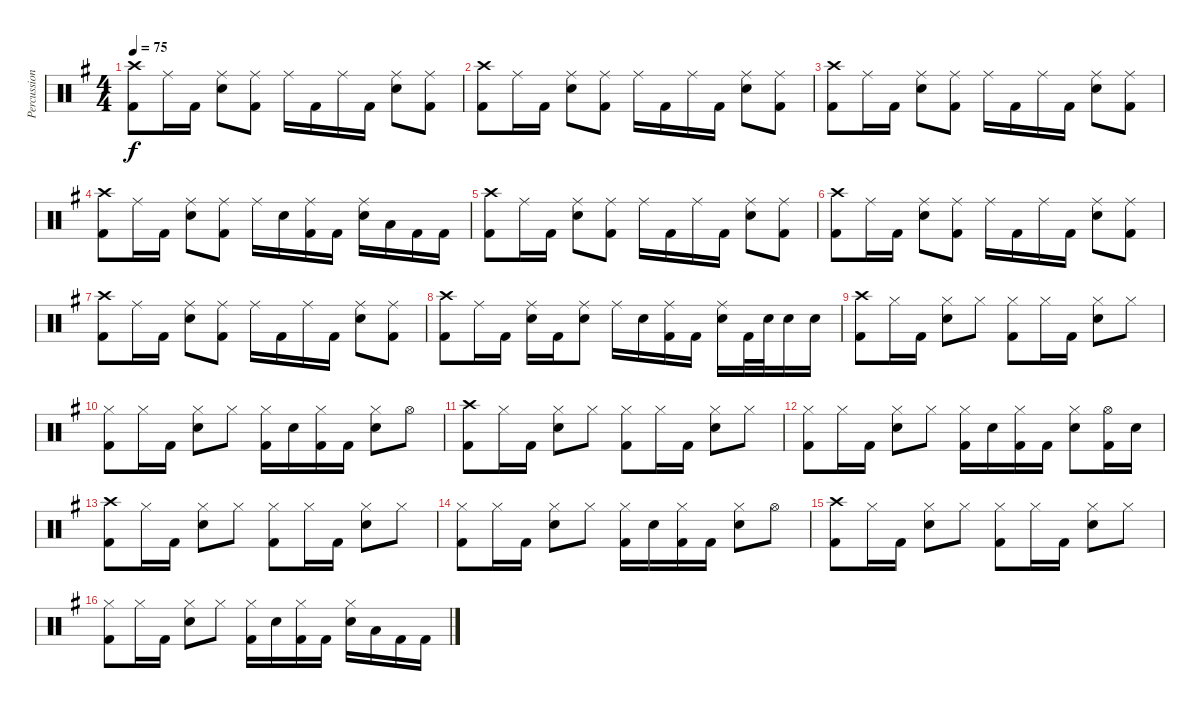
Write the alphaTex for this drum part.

\track ("Percussion" "Percussion") {instrument percussion}
\staff {score}
\articulation defaults
\ts (4 4)
\tempo 75
\clef neutral
\ks eminor
("Crash high (hit)" "Kick (hit) 2").8{dy f} "Ride (middle)".16 "Kick (hit) 2".16 ("Ride (middle)" "Electric Snare (hit)").8 ("Ride (middle)" "Kick (hit) 2").8 "Ride (middle)".16 "Kick (hit) 2".16 "Ride (middle)".16 "Kick (hit) 2".16 ("Ride (middle)" "Electric Snare (hit)").8 ("Ride (middle)" "Kick (hit) 2").8 |
("Crash high (hit)" "Kick (hit) 2").8 "Ride (middle)".16 "Kick (hit) 2".16 ("Ride (middle)" "Electric Snare (hit)").8 ("Ride (middle)" "Kick (hit) 2").8 "Ride (middle)".16 "Kick (hit) 2".16 "Ride (middle)".16 "Kick (hit) 2".16 ("Ride (middle)" "Electric Snare (hit)").8 ("Ride (middle)" "Kick (hit) 2").8 |
("Crash high (hit)" "Kick (hit) 2").8 "Ride (middle)".16 "Kick (hit) 2".16 ("Ride (middle)" "Electric Snare (hit)").8 ("Ride (middle)" "Kick (hit) 2").8 "Ride (middle)".16 "Kick (hit) 2".16 "Ride (middle)".16 "Kick (hit) 2".16 ("Ride (middle)" "Electric Snare (hit)").8 ("Ride (middle)" "Kick (hit) 2").8 |
("Crash high (hit)" "Kick (hit) 2").8 "Ride (middle)".16 "Kick (hit) 2".16 ("Ride (middle)" "Electric Snare (hit)").8 ("Ride (middle)" "Kick (hit) 2").8 "Ride (middle)".16 "Electric Snare (hit)".16 ("Ride (middle)" "Kick (hit) 2").16 "Kick (hit) 2".16 ("Ride (middle)" "Electric Snare (hit)").16 "Low Tom (hit)".16 "Kick (hit) 2".16 "Kick (hit) 2".16 |
("Crash high (hit)" "Kick (hit) 2").8 "Ride (middle)".16 "Kick (hit) 2".16 ("Ride (middle)" "Electric Snare (hit)").8 ("Ride (middle)" "Kick (hit) 2").8 "Ride (middle)".16 "Kick (hit) 2".16 "Ride (middle)".16 "Kick (hit) 2".16 ("Ride (middle)" "Electric Snare (hit)").8 ("Ride (middle)" "Kick (hit) 2").8 |
("Crash high (hit)" "Kick (hit) 2").8 "Ride (middle)".16 "Kick (hit) 2".16 ("Ride (middle)" "Electric Snare (hit)").8 ("Ride (middle)" "Kick (hit) 2").8 "Ride (middle)".16 "Kick (hit) 2".16 "Ride (middle)".16 "Kick (hit) 2".16 ("Ride (middle)" "Electric Snare (hit)").8 ("Ride (middle)" "Kick (hit) 2").8 |
("Crash high (hit)" "Kick (hit) 2").8 "Ride (middle)".16 "Kick (hit) 2".16 ("Ride (middle)" "Electric Snare (hit)").8 ("Ride (middle)" "Kick (hit) 2").8 "Ride (middle)".16 "Kick (hit) 2".16 "Ride (middle)".16 "Kick (hit) 2".16 ("Ride (middle)" "Electric Snare (hit)").8 ("Ride (middle)" "Kick (hit) 2").8 |
("Crash high (hit)" "Kick (hit) 2").8 "Ride (middle)".16 "Kick (hit) 2".16 ("Ride (middle)" "Electric Snare (hit)").16 "Kick (hit) 2".16 ("Ride (middle)" "Electric Snare (hit)").8 "Ride (middle)".16 "Electric Snare (hit)".16 ("Ride (middle)" "Kick (hit) 2").16 "Kick (hit) 2".16 ("Ride (middle)" "Electric Snare (hit)").16 "Kick (hit) 2".32 "Electric Snare (hit)".32 "Electric Snare (hit)".16 "Electric Snare (hit)".16 |
("Crash high (hit)" "Kick (hit) 2").8 "Hi-Hat (closed)".16 "Kick (hit) 2".16 ("Hi-Hat (closed)" "Electric Snare (hit)").8 "Hi-Hat (closed)".8 ("Hi-Hat (closed)" "Kick (hit) 2").8 "Hi-Hat (closed)".16 "Kick (hit) 2".16 ("Hi-Hat (closed)" "Electric Snare (hit)").8 "Hi-Hat (closed)".8 |
("Hi-Hat (closed)" "Kick (hit) 2").8 "Hi-Hat (closed)".16 "Kick (hit) 2".16 ("Hi-Hat (closed)" "Electric Snare (hit)").8 "Hi-Hat (closed)".8 ("Hi-Hat (closed)" "Kick (hit) 2").16 "Electric Snare (hit)".16 ("Hi-Hat (closed)" "Kick (hit) 2").16 "Kick (hit) 2".16 ("Hi-Hat (closed)" "Electric Snare (hit)").8 "Hi-Hat (open)".8 |
("Crash high (hit)" "Kick (hit) 2").8 "Hi-Hat (closed)".16 "Kick (hit) 2".16 ("Hi-Hat (closed)" "Electric Snare (hit)").8 "Hi-Hat (closed)".8 ("Hi-Hat (closed)" "Kick (hit) 2").8 "Hi-Hat (closed)".16 "Kick (hit) 2".16 ("Hi-Hat (closed)" "Electric Snare (hit)").8 "Hi-Hat (closed)".8 |
("Hi-Hat (closed)" "Kick (hit) 2").8 "Hi-Hat (closed)".16 "Kick (hit) 2".16 ("Hi-Hat (closed)" "Electric Snare (hit)").8 "Hi-Hat (closed)".8 ("Hi-Hat (closed)" "Kick (hit) 2").16 "Electric Snare (hit)".16 ("Hi-Hat (closed)" "Kick (hit) 2").16 "Kick (hit) 2".16 ("Hi-Hat (closed)" "Electric Snare (hit)").8 ("Hi-Hat (open)" "Kick (hit) 2").16 "Electric Snare (hit)".16 |
("Crash high (hit)" "Kick (hit) 2").8 "Hi-Hat (closed)".16 "Kick (hit) 2".16 ("Hi-Hat (closed)" "Electric Snare (hit)").8 "Hi-Hat (closed)".8 ("Hi-Hat (closed)" "Kick (hit) 2").8 "Hi-Hat (closed)".16 "Kick (hit) 2".16 ("Hi-Hat (closed)" "Electric Snare (hit)").8 "Hi-Hat (closed)".8 |
("Hi-Hat (closed)" "Kick (hit) 2").8 "Hi-Hat (closed)".16 "Kick (hit) 2".16 ("Hi-Hat (closed)" "Electric Snare (hit)").8 "Hi-Hat (closed)".8 ("Hi-Hat (closed)" "Kick (hit) 2").16 "Electric Snare (hit)".16 ("Hi-Hat (closed)" "Kick (hit) 2").16 "Kick (hit) 2".16 ("Hi-Hat (closed)" "Electric Snare (hit)").8 "Hi-Hat (open)".8 |
("Crash high (hit)" "Kick (hit) 2").8 "Hi-Hat (closed)".16 "Kick (hit) 2".16 ("Hi-Hat (closed)" "Electric Snare (hit)").8 "Hi-Hat (closed)".8 ("Hi-Hat (closed)" "Kick (hit) 2").8 "Hi-Hat (closed)".16 "Kick (hit) 2".16 ("Hi-Hat (closed)" "Electric Snare (hit)").8 "Hi-Hat (closed)".8 |
("Hi-Hat (closed)" "Kick (hit) 2").8 "Hi-Hat (closed)".16 "Kick (hit) 2".16 ("Hi-Hat (closed)" "Electric Snare (hit)").8 "Hi-Hat (closed)".8 ("Hi-Hat (closed)" "Kick (hit) 2").16 "Electric Snare (hit)".16 ("Hi-Hat (closed)" "Kick (hit) 2").16 "Kick (hit) 2".16 ("Hi-Hat (closed)" "Electric Snare (hit)").16 "Low Tom (hit)".16 "Kick (hit) 2".16 "Kick (hit) 2".16
